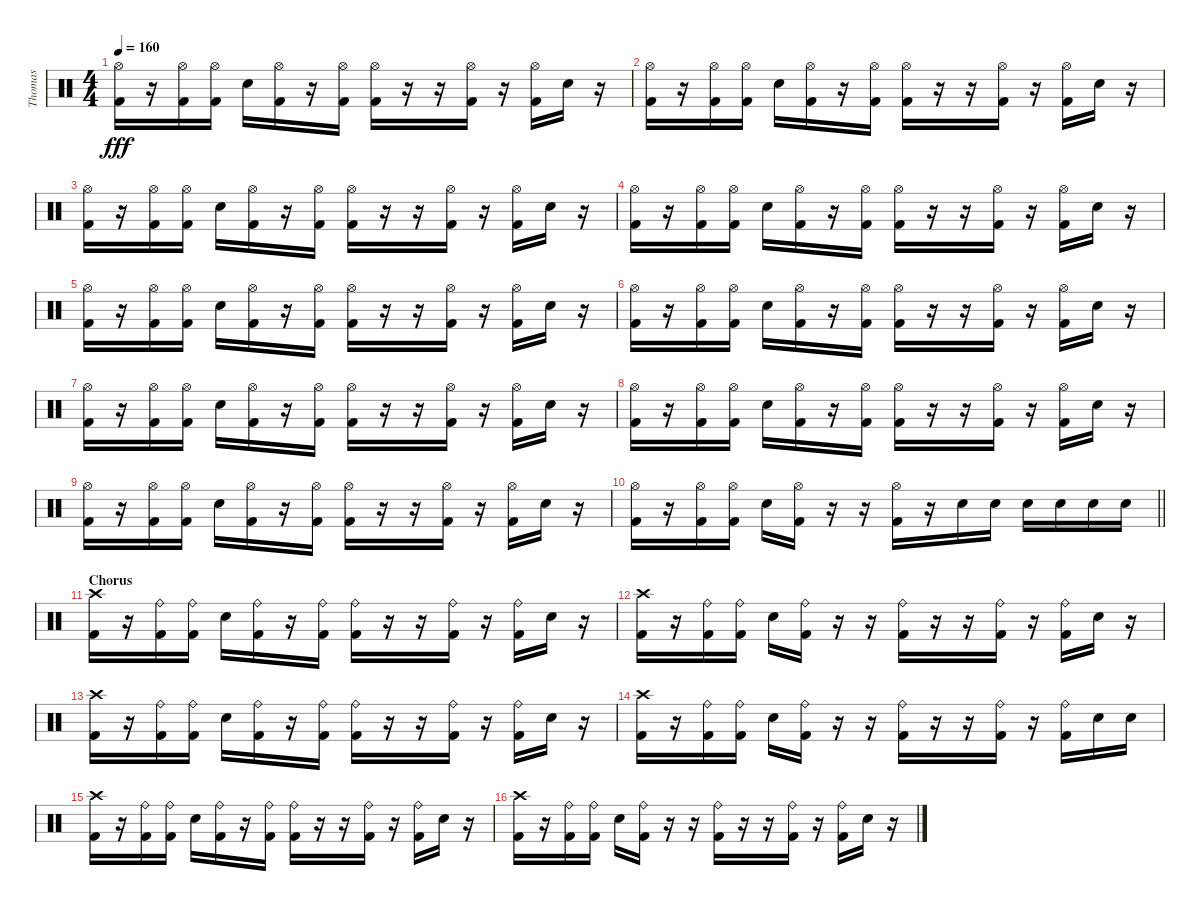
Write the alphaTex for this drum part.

\track ("Thomas " "Thomas ") {instrument percussion}
\staff {score}
\articulation defaults
\ts (4 4)
\tempo 160
\clef neutral
\ks c
("Hi-Hat (open)" "Kick (hit) 2").16{dy fff} r.16 ("Hi-Hat (open)" "Kick (hit) 2").16 ("Hi-Hat (open)" "Kick (hit) 2").16 "Electric Snare (hit)".16 ("Hi-Hat (open)" "Kick (hit) 2").16 r.16 ("Hi-Hat (open)" "Kick (hit) 2").16 ("Hi-Hat (open)" "Kick (hit) 2").16 r.16 r.16 ("Hi-Hat (open)" "Kick (hit) 2").16 r.16 ("Hi-Hat (open)" "Kick (hit) 2").16 "Electric Snare (hit)".16 r.16 |
("Hi-Hat (open)" "Kick (hit) 2").16 r.16 ("Hi-Hat (open)" "Kick (hit) 2").16 ("Hi-Hat (open)" "Kick (hit) 2").16 "Electric Snare (hit)".16 ("Hi-Hat (open)" "Kick (hit) 2").16 r.16 ("Hi-Hat (open)" "Kick (hit) 2").16 ("Hi-Hat (open)" "Kick (hit) 2").16 r.16 r.16 ("Hi-Hat (open)" "Kick (hit) 2").16 r.16 ("Hi-Hat (open)" "Kick (hit) 2").16 "Electric Snare (hit)".16 r.16 |
("Hi-Hat (open)" "Kick (hit) 2").16 r.16 ("Hi-Hat (open)" "Kick (hit) 2").16 ("Hi-Hat (open)" "Kick (hit) 2").16 "Electric Snare (hit)".16 ("Hi-Hat (open)" "Kick (hit) 2").16 r.16 ("Hi-Hat (open)" "Kick (hit) 2").16 ("Hi-Hat (open)" "Kick (hit) 2").16 r.16 r.16 ("Hi-Hat (open)" "Kick (hit) 2").16 r.16 ("Hi-Hat (open)" "Kick (hit) 2").16 "Electric Snare (hit)".16 r.16 |
("Hi-Hat (open)" "Kick (hit) 2").16 r.16 ("Hi-Hat (open)" "Kick (hit) 2").16 ("Hi-Hat (open)" "Kick (hit) 2").16 "Electric Snare (hit)".16 ("Hi-Hat (open)" "Kick (hit) 2").16 r.16 ("Hi-Hat (open)" "Kick (hit) 2").16 ("Hi-Hat (open)" "Kick (hit) 2").16 r.16 r.16 ("Hi-Hat (open)" "Kick (hit) 2").16 r.16 ("Hi-Hat (open)" "Kick (hit) 2").16 "Electric Snare (hit)".16 r.16 |
("Hi-Hat (open)" "Kick (hit) 2").16 r.16 ("Hi-Hat (open)" "Kick (hit) 2").16 ("Hi-Hat (open)" "Kick (hit) 2").16 "Electric Snare (hit)".16 ("Hi-Hat (open)" "Kick (hit) 2").16 r.16 ("Hi-Hat (open)" "Kick (hit) 2").16 ("Hi-Hat (open)" "Kick (hit) 2").16 r.16 r.16 ("Hi-Hat (open)" "Kick (hit) 2").16 r.16 ("Hi-Hat (open)" "Kick (hit) 2").16 "Electric Snare (hit)".16 r.16 |
("Hi-Hat (open)" "Kick (hit) 2").16 r.16 ("Hi-Hat (open)" "Kick (hit) 2").16 ("Hi-Hat (open)" "Kick (hit) 2").16 "Electric Snare (hit)".16 ("Hi-Hat (open)" "Kick (hit) 2").16 r.16 ("Hi-Hat (open)" "Kick (hit) 2").16 ("Hi-Hat (open)" "Kick (hit) 2").16 r.16 r.16 ("Hi-Hat (open)" "Kick (hit) 2").16 r.16 ("Hi-Hat (open)" "Kick (hit) 2").16 "Electric Snare (hit)".16 r.16 |
("Hi-Hat (open)" "Kick (hit) 2").16 r.16 ("Hi-Hat (open)" "Kick (hit) 2").16 ("Hi-Hat (open)" "Kick (hit) 2").16 "Electric Snare (hit)".16 ("Hi-Hat (open)" "Kick (hit) 2").16 r.16 ("Hi-Hat (open)" "Kick (hit) 2").16 ("Hi-Hat (open)" "Kick (hit) 2").16 r.16 r.16 ("Hi-Hat (open)" "Kick (hit) 2").16 r.16 ("Hi-Hat (open)" "Kick (hit) 2").16 "Electric Snare (hit)".16 r.16 |
("Hi-Hat (open)" "Kick (hit) 2").16 r.16 ("Hi-Hat (open)" "Kick (hit) 2").16 ("Hi-Hat (open)" "Kick (hit) 2").16 "Electric Snare (hit)".16 ("Hi-Hat (open)" "Kick (hit) 2").16 r.16 ("Hi-Hat (open)" "Kick (hit) 2").16 ("Hi-Hat (open)" "Kick (hit) 2").16 r.16 r.16 ("Hi-Hat (open)" "Kick (hit) 2").16 r.16 ("Hi-Hat (open)" "Kick (hit) 2").16 "Electric Snare (hit)".16 r.16 |
("Hi-Hat (open)" "Kick (hit) 2").16 r.16 ("Hi-Hat (open)" "Kick (hit) 2").16 ("Hi-Hat (open)" "Kick (hit) 2").16 "Electric Snare (hit)".16 ("Hi-Hat (open)" "Kick (hit) 2").16 r.16 ("Hi-Hat (open)" "Kick (hit) 2").16 ("Hi-Hat (open)" "Kick (hit) 2").16 r.16 r.16 ("Hi-Hat (open)" "Kick (hit) 2").16 r.16 ("Hi-Hat (open)" "Kick (hit) 2").16 "Electric Snare (hit)".16 r.16 |
\barLineRight lightlight
("Hi-Hat (open)" "Kick (hit) 2").16 r.16 ("Hi-Hat (open)" "Kick (hit) 2").16 ("Hi-Hat (open)" "Kick (hit) 2").16 "Electric Snare (hit)".16 ("Hi-Hat (open)" "Kick (hit) 2").16 r.16 r.16 ("Hi-Hat (open)" "Kick (hit) 2").16 r.16 "Electric Snare (hit)".16 "Electric Snare (hit)".16 "Electric Snare (hit)".16 "Electric Snare (hit)".16 "Electric Snare (hit)".16 "Electric Snare (hit)".16 |
\section ("" "Chorus")
("Crash high (hit)" "Kick (hit) 2").16 r.16 ("Ride (bell)" "Kick (hit) 2").16 ("Ride (bell)" "Kick (hit) 2").16 "Electric Snare (hit)".16 ("Ride (bell)" "Kick (hit) 2").16 r.16 ("Ride (bell)" "Kick (hit) 2").16 ("Ride (bell)" "Kick (hit) 2").16 r.16 r.16 ("Ride (bell)" "Kick (hit) 2").16 r.16 ("Ride (bell)" "Kick (hit) 2").16 "Electric Snare (hit)".16 r.16 |
("Crash high (hit)" "Kick (hit) 2").16 r.16 ("Ride (bell)" "Kick (hit) 2").16 ("Ride (bell)" "Kick (hit) 2").16 "Electric Snare (hit)".16 ("Ride (bell)" "Kick (hit) 2").16 r.16 r.16 ("Ride (bell)" "Kick (hit) 2").16 r.16 r.16 ("Ride (bell)" "Kick (hit) 2").16 r.16 ("Ride (bell)" "Kick (hit) 2").16 "Electric Snare (hit)".16 r.16 |
("Crash high (hit)" "Kick (hit) 2").16 r.16 ("Ride (bell)" "Kick (hit) 2").16 ("Ride (bell)" "Kick (hit) 2").16 "Electric Snare (hit)".16 ("Ride (bell)" "Kick (hit) 2").16 r.16 ("Ride (bell)" "Kick (hit) 2").16 ("Ride (bell)" "Kick (hit) 2").16 r.16 r.16 ("Ride (bell)" "Kick (hit) 2").16 r.16 ("Ride (bell)" "Kick (hit) 2").16 "Electric Snare (hit)".16 r.16 |
("Crash high (hit)" "Kick (hit) 2").16 r.16 ("Ride (bell)" "Kick (hit) 2").16 ("Ride (bell)" "Kick (hit) 2").16 "Electric Snare (hit)".16 ("Ride (bell)" "Kick (hit) 2").16 r.16 r.16 ("Ride (bell)" "Kick (hit) 2").16 r.16 r.16 ("Ride (bell)" "Kick (hit) 2").16 r.16 ("Ride (bell)" "Kick (hit) 2").16 "Electric Snare (hit)".16 "Electric Snare (hit)".16 |
("Crash high (hit)" "Kick (hit) 2").16 r.16 ("Ride (bell)" "Kick (hit) 2").16 ("Ride (bell)" "Kick (hit) 2").16 "Electric Snare (hit)".16 ("Ride (bell)" "Kick (hit) 2").16 r.16 ("Ride (bell)" "Kick (hit) 2").16 ("Ride (bell)" "Kick (hit) 2").16 r.16 r.16 ("Ride (bell)" "Kick (hit) 2").16 r.16 ("Ride (bell)" "Kick (hit) 2").16 "Electric Snare (hit)".16 r.16 |
("Crash high (hit)" "Kick (hit) 2").16 r.16 ("Ride (bell)" "Kick (hit) 2").16 ("Ride (bell)" "Kick (hit) 2").16 "Electric Snare (hit)".16 ("Ride (bell)" "Kick (hit) 2").16 r.16 r.16 ("Ride (bell)" "Kick (hit) 2").16 r.16 r.16 ("Ride (bell)" "Kick (hit) 2").16 r.16 ("Ride (bell)" "Kick (hit) 2").16 "Electric Snare (hit)".16 r.16
